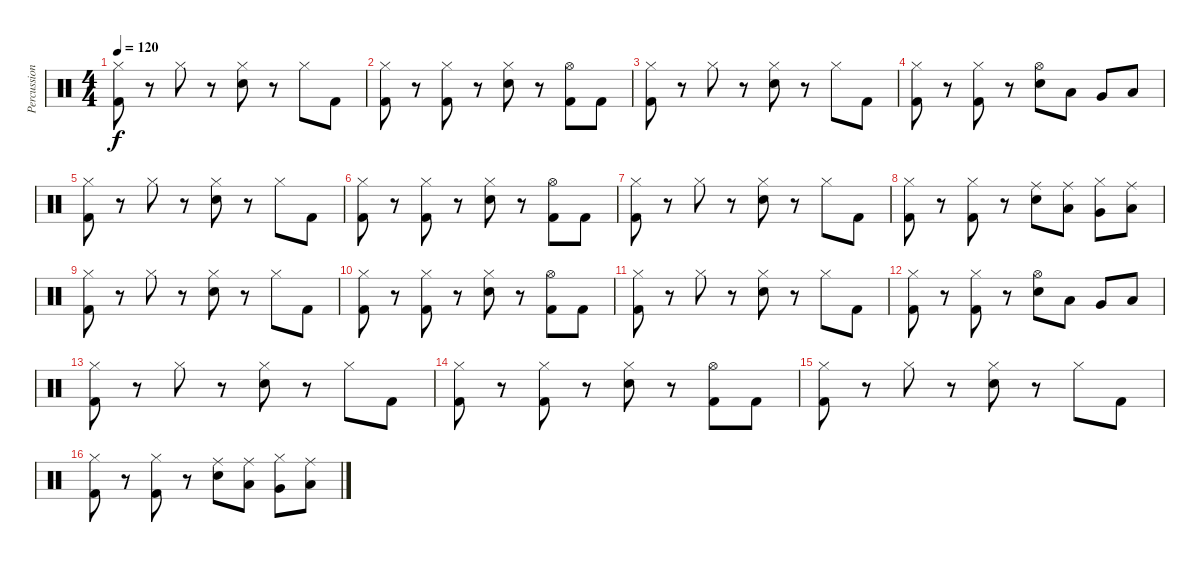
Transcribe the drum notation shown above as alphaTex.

\track ("Percussions" "Percussion") {instrument percussion}
\staff {score}
\articulation defaults
\ts (4 4)
\tempo 120
\clef neutral
\ks c
("Hi-Hat (closed)" "Kick (hit) 2").8{dy f} r.8 "Hi-Hat (closed)".8 r.8 ("Hi-Hat (closed)" "Snare (hit) 2").8 r.8 "Hi-Hat (closed)".8 "Kick (hit) 2".8 |
("Hi-Hat (closed)" "Kick (hit) 2").8 r.8 ("Hi-Hat (closed)" "Kick (hit) 2").8 r.8 ("Hi-Hat (closed)" "Snare (hit) 2").8 r.8 ("Hi-Hat (open)" "Kick (hit) 2").8 "Kick (hit) 2".8 |
("Hi-Hat (closed)" "Kick (hit) 2").8 r.8 "Hi-Hat (closed)".8 r.8 ("Hi-Hat (closed)" "Snare (hit) 2").8 r.8 "Hi-Hat (closed)".8 "Kick (hit) 2".8 |
("Hi-Hat (closed)" "Kick (hit) 2").8 r.8 ("Hi-Hat (closed)" "Kick (hit) 2").8 r.8 ("Hi-Hat (open)" "Snare (hit) 2").8 "Low Tom (hit)".8 "Very Low Tom (hit)".8 "Low Floor Tom (hit)".8 |
("Hi-Hat (closed)" "Kick (hit) 2").8 r.8 "Hi-Hat (closed)".8 r.8 ("Hi-Hat (closed)" "Snare (hit) 2").8 r.8 "Hi-Hat (closed)".8 "Kick (hit) 2".8 |
("Hi-Hat (closed)" "Kick (hit) 2").8 r.8 ("Hi-Hat (closed)" "Kick (hit) 2").8 r.8 ("Hi-Hat (closed)" "Snare (hit) 2").8 r.8 ("Hi-Hat (open)" "Kick (hit) 2").8 "Kick (hit) 2".8 |
("Hi-Hat (closed)" "Kick (hit) 2").8 r.8 "Hi-Hat (closed)".8 r.8 ("Hi-Hat (closed)" "Snare (hit) 2").8 r.8 "Hi-Hat (closed)".8 "Kick (hit) 2".8 |
("Hi-Hat (closed)" "Kick (hit) 2").8 r.8 ("Hi-Hat (closed)" "Kick (hit) 2").8 r.8 ("Ride (middle)" "Snare (hit) 2").8 ("Ride (middle)" "Low Tom (hit)").8 ("Hi-Hat (closed)" "Very Low Tom (hit)").8 ("Ride (middle)" "Low Floor Tom (hit)").8 |
("Hi-Hat (closed)" "Kick (hit) 2").8 r.8 "Hi-Hat (closed)".8 r.8 ("Hi-Hat (closed)" "Snare (hit) 2").8 r.8 "Hi-Hat (closed)".8 "Kick (hit) 2".8 |
("Hi-Hat (closed)" "Kick (hit) 2").8 r.8 ("Hi-Hat (closed)" "Kick (hit) 2").8 r.8 ("Hi-Hat (closed)" "Snare (hit) 2").8 r.8 ("Hi-Hat (open)" "Kick (hit) 2").8 "Kick (hit) 2".8 |
("Hi-Hat (closed)" "Kick (hit) 2").8 r.8 "Hi-Hat (closed)".8 r.8 ("Hi-Hat (closed)" "Snare (hit) 2").8 r.8 "Hi-Hat (closed)".8 "Kick (hit) 2".8 |
("Hi-Hat (closed)" "Kick (hit) 2").8 r.8 ("Hi-Hat (closed)" "Kick (hit) 2").8 r.8 ("Hi-Hat (open)" "Snare (hit) 2").8 "Low Tom (hit)".8 "Very Low Tom (hit)".8 "Low Floor Tom (hit)".8 |
("Hi-Hat (closed)" "Kick (hit) 2").8 r.8 "Hi-Hat (closed)".8 r.8 ("Hi-Hat (closed)" "Snare (hit) 2").8 r.8 "Hi-Hat (closed)".8 "Kick (hit) 2".8 |
("Hi-Hat (closed)" "Kick (hit) 2").8 r.8 ("Hi-Hat (closed)" "Kick (hit) 2").8 r.8 ("Hi-Hat (closed)" "Snare (hit) 2").8 r.8 ("Hi-Hat (open)" "Kick (hit) 2").8 "Kick (hit) 2".8 |
("Hi-Hat (closed)" "Kick (hit) 2").8 r.8 "Hi-Hat (closed)".8 r.8 ("Hi-Hat (closed)" "Snare (hit) 2").8 r.8 "Hi-Hat (closed)".8 "Kick (hit) 2".8 |
("Hi-Hat (closed)" "Kick (hit) 2").8 r.8 ("Hi-Hat (closed)" "Kick (hit) 2").8 r.8 ("Ride (middle)" "Snare (hit) 2").8 ("Ride (middle)" "Low Tom (hit)").8 ("Hi-Hat (closed)" "Very Low Tom (hit)").8 ("Ride (middle)" "Low Floor Tom (hit)").8
